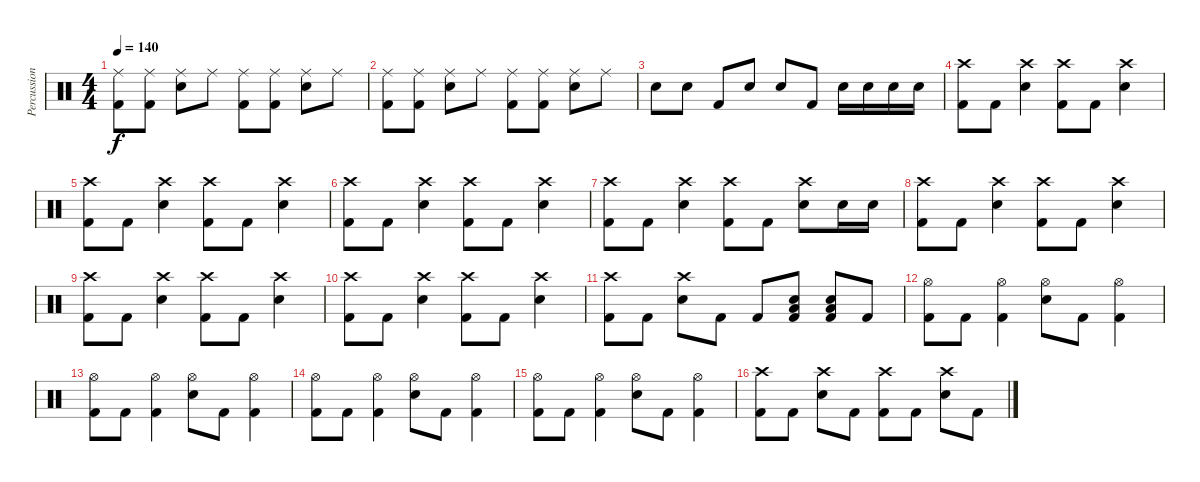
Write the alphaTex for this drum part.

\track ("Percussion" "Percussion") {instrument percussion}
\staff {score}
\articulation defaults
\ts (4 4)
\tempo 140
\clef neutral
\ks c
("Ride (middle)" "Kick (hit) 2").8{dy f} ("Ride (middle)" "Kick (hit) 2").8 ("Ride (middle)" "Electric Snare (hit)").8 "Ride (middle)".8 ("Ride (middle)" "Kick (hit) 2").8 ("Ride (middle)" "Kick (hit) 2").8 ("Ride (middle)" "Electric Snare (hit)").8 "Ride (middle)".8 |
("Ride (middle)" "Kick (hit) 2").8 ("Ride (middle)" "Kick (hit) 2").8 ("Ride (middle)" "Electric Snare (hit)").8 "Ride (middle)".8 ("Ride (middle)" "Kick (hit) 2").8 ("Ride (middle)" "Kick (hit) 2").8 ("Ride (middle)" "Electric Snare (hit)").8 "Ride (middle)".8 |
"Electric Snare (hit)".8 "Electric Snare (hit)".8 "Kick (hit) 2".8 "Electric Snare (hit)".8 "Electric Snare (hit)".8 "Kick (hit) 2".8 "Electric Snare (hit)".16 "Electric Snare (hit)".16 "Electric Snare (hit)".16 "Electric Snare (hit)".16 |
("Crash high (hit)" "Kick (hit) 2").8 "Kick (hit) 2".8 ("Crash high (hit)" "Electric Snare (hit)").4 ("Crash high (hit)" "Kick (hit) 2").8 "Kick (hit) 2".8 ("Crash high (hit)" "Electric Snare (hit)").4 |
("Crash high (hit)" "Kick (hit) 2").8 "Kick (hit) 2".8 ("Crash high (hit)" "Electric Snare (hit)").4 ("Crash high (hit)" "Kick (hit) 2").8 "Kick (hit) 2".8 ("Crash high (hit)" "Electric Snare (hit)").4 |
("Crash high (hit)" "Kick (hit) 2").8 "Kick (hit) 2".8 ("Crash high (hit)" "Electric Snare (hit)").4 ("Crash high (hit)" "Kick (hit) 2").8 "Kick (hit) 2".8 ("Crash high (hit)" "Electric Snare (hit)").4 |
("Crash high (hit)" "Kick (hit) 2").8 "Kick (hit) 2".8 ("Crash high (hit)" "Electric Snare (hit)").4 ("Crash high (hit)" "Kick (hit) 2").8 "Kick (hit) 2".8 ("Crash high (hit)" "Electric Snare (hit)").8 "Electric Snare (hit)".16 "Electric Snare (hit)".16 |
("Crash high (hit)" "Kick (hit) 2").8 "Kick (hit) 2".8 ("Crash high (hit)" "Electric Snare (hit)").4 ("Crash high (hit)" "Kick (hit) 2").8 "Kick (hit) 2".8 ("Crash high (hit)" "Electric Snare (hit)").4 |
("Crash high (hit)" "Kick (hit) 2").8 "Kick (hit) 2".8 ("Crash high (hit)" "Electric Snare (hit)").4 ("Crash high (hit)" "Kick (hit) 2").8 "Kick (hit) 2".8 ("Crash high (hit)" "Electric Snare (hit)").4 |
("Crash high (hit)" "Kick (hit) 2").8 "Kick (hit) 2".8 ("Crash high (hit)" "Electric Snare (hit)").4 ("Crash high (hit)" "Kick (hit) 2").8 "Kick (hit) 2".8 ("Crash high (hit)" "Electric Snare (hit)").4 |
("Crash high (hit)" "Kick (hit) 2").8 "Kick (hit) 2".8 ("Crash high (hit)" "Electric Snare (hit)").8 "Kick (hit) 2".8 "Kick (hit) 2".8 ("Low Floor Tom (hit)" "Electric Snare (hit)" "Kick (hit) 2").8 ("Low Floor Tom (hit)" "Electric Snare (hit)" "Kick (hit) 2").8 "Kick (hit) 2".8 |
("Hi-Hat (open)" "Kick (hit) 2").8 "Kick (hit) 2".8 ("Hi-Hat (open)" "Kick (hit) 2").4 ("Hi-Hat (open)" "Electric Snare (hit)").8 "Kick (hit) 2".8 ("Hi-Hat (open)" "Kick (hit) 2").4 |
("Hi-Hat (open)" "Kick (hit) 2").8 "Kick (hit) 2".8 ("Hi-Hat (open)" "Kick (hit) 2").4 ("Hi-Hat (open)" "Electric Snare (hit)").8 "Kick (hit) 2".8 ("Hi-Hat (open)" "Kick (hit) 2").4 |
("Hi-Hat (open)" "Kick (hit) 2").8 "Kick (hit) 2".8 ("Hi-Hat (open)" "Kick (hit) 2").4 ("Hi-Hat (open)" "Electric Snare (hit)").8 "Kick (hit) 2".8 ("Hi-Hat (open)" "Kick (hit) 2").4 |
("Hi-Hat (open)" "Kick (hit) 2").8 "Kick (hit) 2".8 ("Hi-Hat (open)" "Kick (hit) 2").4 ("Hi-Hat (open)" "Electric Snare (hit)").8 "Kick (hit) 2".8 ("Hi-Hat (open)" "Kick (hit) 2").4 |
("Crash high (hit)" "Kick (hit) 2").8 "Kick (hit) 2".8 ("Crash high (hit)" "Electric Snare (hit)").8 "Kick (hit) 2".8 ("Crash high (hit)" "Kick (hit) 2").8 "Kick (hit) 2".8 ("Crash high (hit)" "Electric Snare (hit)").8 "Kick (hit) 2".8
